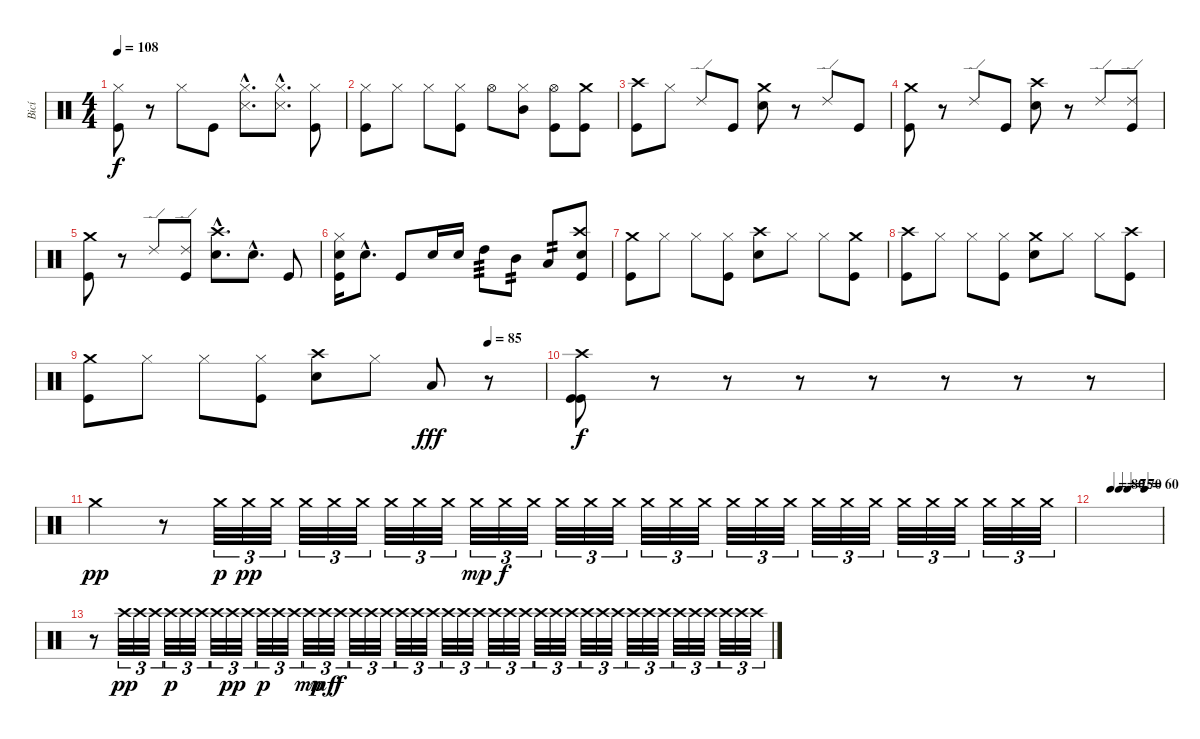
\track ("Bicí" "Bicí") {instrument percussion}
\staff {score}
\articulation defaults
\ts (4 4)
\tempo 108
\clef neutral
\ks c
("Hi-Hat (closed)" "Kick (hit)").8{dy f} r.8 "Hi-Hat (closed)".8 "Kick (hit)".8 ("Hi-Hat (closed)"{hac} "Snare (side stick) 3"{hac}).8{d} ("Hi-Hat (closed)"{hac} "Snare (side stick) 3"{hac}).8{d} ("Hi-Hat (closed)" "Kick (hit)").8 |
("Hi-Hat (closed)" "Kick (hit)").8 "Hi-Hat (closed)".8 "Hi-Hat (closed)".8 ("Hi-Hat (closed)" "Kick (hit)").8 "Hi-Hat (open)".8 ("Hi-Hat (closed)" "Mid Tom (hit)").8 ("Hi-Hat (open)" "Kick (hit)").8 ("Crash medium (hit)" "Kick (hit)").8 |
("Crash high (hit)" "Kick (hit)").8 "Hi-Hat (closed)".8 "Ride (edge) 2".8 "Kick (hit)".8 ("Crash medium (hit)" "Snare (hit) 2").8 r.8 "Ride (edge) 2".8 "Kick (hit)".8 |
("Crash medium (hit)" "Kick (hit)").8 r.8 "Ride (edge) 2".8 "Kick (hit)".8 ("Crash high (hit)" "Snare (hit) 2").8 r.8 "Ride (edge) 2".8 ("Ride (edge) 2" "Kick (hit)").8 |
("Crash medium (hit)" "Kick (hit)").8 r.8 "Ride (edge) 2".8 ("Ride (edge) 2" "Kick (hit)").8 ("Crash high (hit)"{hac} "Snare (hit) 2"{hac}).8{d} "Snare (hit) 2"{hac}.8{d} "Kick (hit)".8 |
("Hi-Hat (closed)" "Snare (hit) 2" "Kick (hit)").16 "Snare (hit) 2"{hac}.8{d} "Kick (hit)".8 "Snare (hit) 2".16 "Snare (hit) 2".16 "High Tom (hit)".8{tp 3} "Mid Tom (hit)".8{tp 2} "Low Tom (hit)".8{tp 2} ("Crash high (hit)" "Snare (hit) 2" "Kick (hit)").8 |
("Crash medium (hit)" "Kick (hit)").8 "Hi-Hat (closed)".8 "Hi-Hat (closed)".8 ("Hi-Hat (closed)" "Kick (hit)").8 ("Crash high (hit)" "Snare (hit) 2").8 "Hi-Hat (closed)".8 "Hi-Hat (closed)".8 ("Crash medium (hit)" "Kick (hit)").8 |
("Crash high (hit)" "Kick (hit)").8 "Hi-Hat (closed)".8 "Hi-Hat (closed)".8 ("Hi-Hat (closed)" "Kick (hit)").8 ("Crash medium (hit)" "Snare (hit) 2").8 "Hi-Hat (closed)".8 "Hi-Hat (closed)".8 ("Crash high (hit)" "Kick (hit)").8 |
\tempo (85 0.875)
("Crash medium (hit)" "Kick (hit)").8 "Hi-Hat (closed)".8 "Hi-Hat (closed)".8 ("Hi-Hat (closed)" "Kick (hit)").8 ("Crash high (hit)" "Snare (hit) 2").8 "Hi-Hat (closed)".8 "Low Tom (hit)".8{dy fff} r.8 |
("Crash high (hit)" "Kick (hit)" "Kick (hit)").8{dy f} r.8 r.8 r.8 r.8 r.8 r.8 r.8 |
"Crash medium (hit)".4{dy pp} r.8{volume 16} "Crash medium (hit)".32{tu (3 2) dy p} "Crash medium (hit)".32{tu (3 2) dy pp} "Crash medium (hit)".32{tu (3 2)} "Crash medium (hit)".32{tu (3 2)} "Crash medium (hit)".32{tu (3 2)} "Crash medium (hit)".32{tu (3 2)} "Crash medium (hit)".32{tu (3 2)} "Crash medium (hit)".32{tu (3 2)} "Crash medium (hit)".32{tu (3 2)} "Crash medium (hit)".32{tu (3 2) dy mp} "Crash medium (hit)".32{tu (3 2) dy f} "Crash medium (hit)".32{tu (3 2)} "Crash medium (hit)".32{tu (3 2)} "Crash medium (hit)".32{tu (3 2)} "Crash medium (hit)".32{tu (3 2)} "Crash medium (hit)".32{tu (3 2)} "Crash medium (hit)".32{tu (3 2)} "Crash medium (hit)".32{tu (3 2)} "Crash medium (hit)".32{tu (3 2)} "Crash medium (hit)".32{tu (3 2)} "Crash medium (hit)".32{tu (3 2)} "Crash medium (hit)".32{tu (3 2)} "Crash medium (hit)".32{tu (3 2)} "Crash medium (hit)".32{tu (3 2)} "Crash medium (hit)".32{tu (3 2)} "Crash medium (hit)".32{tu (3 2)} "Crash medium (hit)".32{tu (3 2)} "Crash medium (hit)".32{tu (3 2)} "Crash medium (hit)".32{tu (3 2)} "Crash medium (hit)".32{tu (3 2)} |
\tempo (80 0.25)
\tempo (75 0.375)
\tempo (70 0.5)
\tempo (60 0.75)
|
r.8{volume 16} "Crash high (hit)".32{tu (3 2) dy pp} "Crash high (hit)".32{tu (3 2)} "Crash high (hit)".32{tu (3 2)} "Crash high (hit)".32{tu (3 2) dy p} "Crash high (hit)".32{tu (3 2)} "Crash high (hit)".32{tu (3 2)} "Crash high (hit)".32{tu (3 2)} "Crash high (hit)".32{tu (3 2) dy pp} "Crash high (hit)".32{tu (3 2)} "Crash high (hit)".32{tu (3 2) dy p} "Crash high (hit)".32{tu (3 2)} "Crash high (hit)".32{tu (3 2)} "Crash high (hit)".32{tu (3 2) dy mp} "Crash high (hit)".32{tu (3 2) dy mf} "Crash high (hit)".32{tu (3 2) dy f} "Crash high (hit)".32{tu (3 2)} "Crash high (hit)".32{tu (3 2)} "Crash high (hit)".32{tu (3 2)} "Crash high (hit)".32{tu (3 2)} "Crash high (hit)".32{tu (3 2)} "Crash high (hit)".32{tu (3 2)} "Crash high (hit)".32{tu (3 2)} "Crash high (hit)".32{tu (3 2)} "Crash high (hit)".32{tu (3 2)} "Crash high (hit)".32{tu (3 2)} "Crash high (hit)".32{tu (3 2)} "Crash high (hit)".32{tu (3 2)} "Crash high (hit)".32{tu (3 2)} "Crash high (hit)".32{tu (3 2)} "Crash high (hit)".32{tu (3 2)} "Crash high (hit)".32{tu (3 2)} "Crash high (hit)".32{tu (3 2)} "Crash high (hit)".32{tu (3 2)} "Crash high (hit)".32{tu (3 2)} "Crash high (hit)".32{tu (3 2)} "Crash high (hit)".32{tu (3 2)} "Crash high (hit)".32{tu (3 2)} "Crash high (hit)".32{tu (3 2)} "Crash high (hit)".32{tu (3 2)} "Crash high (hit)".32{tu (3 2)} "Crash high (hit)".32{tu (3 2)} "Crash high (hit)".32{tu (3 2)}
